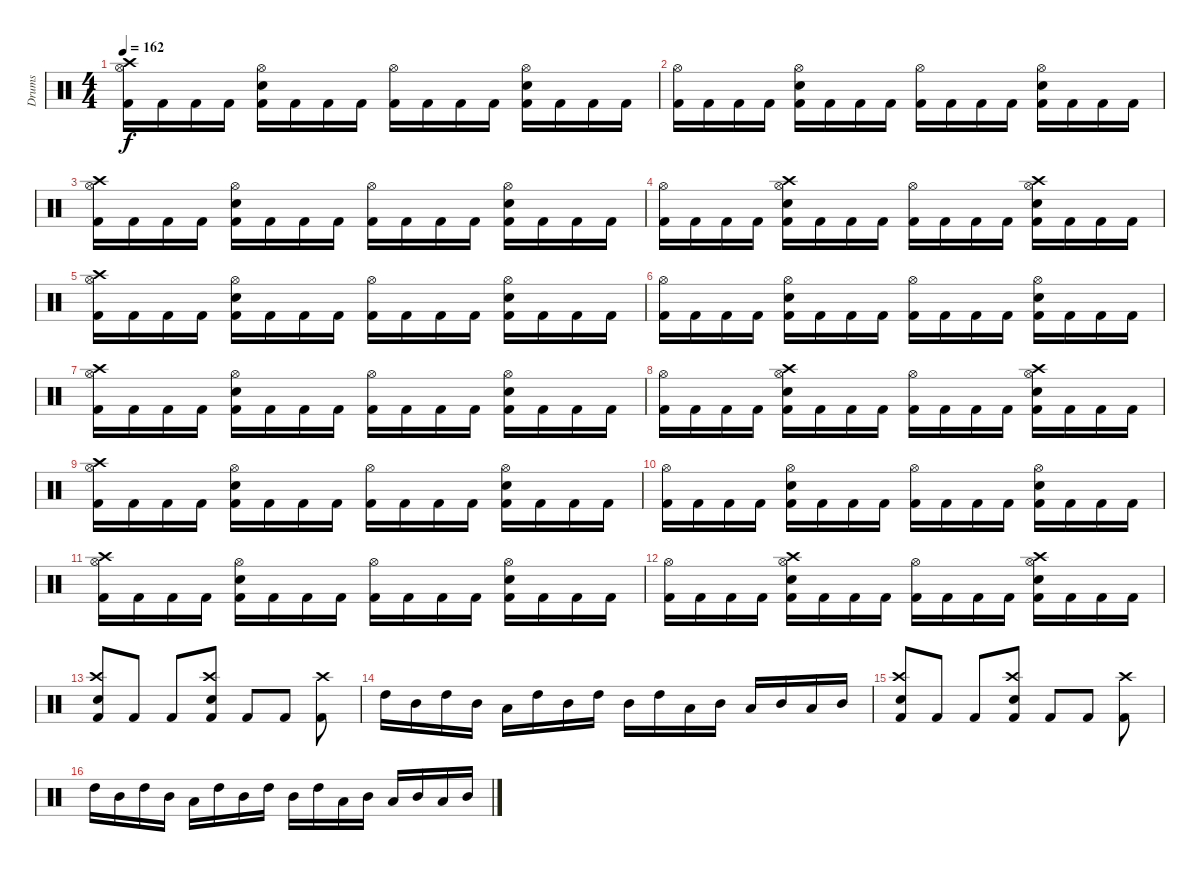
\track ("Drums" "Drums") {instrument percussion}
\staff {score}
\articulation defaults
\ts (4 4)
\tempo 162
\clef neutral
\ks c
("Hi-Hat (open)" "Kick (hit) 2" "Crash high (hit)").16{dy f} "Kick (hit) 2".16 "Kick (hit) 2".16 "Kick (hit) 2".16 ("Hi-Hat (open)" "Electric Snare (hit)" "Kick (hit) 2").16 "Kick (hit) 2".16 "Kick (hit) 2".16 "Kick (hit) 2".16 ("Hi-Hat (open)" "Kick (hit) 2").16 "Kick (hit) 2".16 "Kick (hit) 2".16 "Kick (hit) 2".16 ("Hi-Hat (open)" "Electric Snare (hit)" "Kick (hit) 2").16 "Kick (hit) 2".16 "Kick (hit) 2".16 "Kick (hit) 2".16 |
("Hi-Hat (open)" "Kick (hit) 2").16 "Kick (hit) 2".16 "Kick (hit) 2".16 "Kick (hit) 2".16 ("Hi-Hat (open)" "Electric Snare (hit)" "Kick (hit) 2").16 "Kick (hit) 2".16 "Kick (hit) 2".16 "Kick (hit) 2".16 ("Hi-Hat (open)" "Kick (hit) 2").16 "Kick (hit) 2".16 "Kick (hit) 2".16 "Kick (hit) 2".16 ("Hi-Hat (open)" "Electric Snare (hit)" "Kick (hit) 2").16 "Kick (hit) 2".16 "Kick (hit) 2".16 "Kick (hit) 2".16 |
("Hi-Hat (open)" "Kick (hit) 2" "Crash high (hit)").16 "Kick (hit) 2".16 "Kick (hit) 2".16 "Kick (hit) 2".16 ("Hi-Hat (open)" "Electric Snare (hit)" "Kick (hit) 2").16 "Kick (hit) 2".16 "Kick (hit) 2".16 "Kick (hit) 2".16 ("Hi-Hat (open)" "Kick (hit) 2").16 "Kick (hit) 2".16 "Kick (hit) 2".16 "Kick (hit) 2".16 ("Hi-Hat (open)" "Electric Snare (hit)" "Kick (hit) 2").16 "Kick (hit) 2".16 "Kick (hit) 2".16 "Kick (hit) 2".16 |
("Hi-Hat (open)" "Kick (hit) 2").16 "Kick (hit) 2".16 "Kick (hit) 2".16 "Kick (hit) 2".16 ("Crash high (hit)" "Hi-Hat (open)" "Electric Snare (hit)" "Kick (hit) 2").16 "Kick (hit) 2".16 "Kick (hit) 2".16 "Kick (hit) 2".16 ("Hi-Hat (open)" "Kick (hit) 2").16 "Kick (hit) 2".16 "Kick (hit) 2".16 "Kick (hit) 2".16 ("Crash high (hit)" "Hi-Hat (open)" "Electric Snare (hit)" "Kick (hit) 2").16 "Kick (hit) 2".16 "Kick (hit) 2".16 "Kick (hit) 2".16 |
("Hi-Hat (open)" "Kick (hit) 2" "Crash high (hit)").16 "Kick (hit) 2".16 "Kick (hit) 2".16 "Kick (hit) 2".16 ("Hi-Hat (open)" "Electric Snare (hit)" "Kick (hit) 2").16 "Kick (hit) 2".16 "Kick (hit) 2".16 "Kick (hit) 2".16 ("Hi-Hat (open)" "Kick (hit) 2").16 "Kick (hit) 2".16 "Kick (hit) 2".16 "Kick (hit) 2".16 ("Hi-Hat (open)" "Electric Snare (hit)" "Kick (hit) 2").16 "Kick (hit) 2".16 "Kick (hit) 2".16 "Kick (hit) 2".16 |
("Hi-Hat (open)" "Kick (hit) 2").16 "Kick (hit) 2".16 "Kick (hit) 2".16 "Kick (hit) 2".16 ("Hi-Hat (open)" "Electric Snare (hit)" "Kick (hit) 2").16 "Kick (hit) 2".16 "Kick (hit) 2".16 "Kick (hit) 2".16 ("Hi-Hat (open)" "Kick (hit) 2").16 "Kick (hit) 2".16 "Kick (hit) 2".16 "Kick (hit) 2".16 ("Hi-Hat (open)" "Electric Snare (hit)" "Kick (hit) 2").16 "Kick (hit) 2".16 "Kick (hit) 2".16 "Kick (hit) 2".16 |
("Hi-Hat (open)" "Kick (hit) 2" "Crash high (hit)").16 "Kick (hit) 2".16 "Kick (hit) 2".16 "Kick (hit) 2".16 ("Hi-Hat (open)" "Electric Snare (hit)" "Kick (hit) 2").16 "Kick (hit) 2".16 "Kick (hit) 2".16 "Kick (hit) 2".16 ("Hi-Hat (open)" "Kick (hit) 2").16 "Kick (hit) 2".16 "Kick (hit) 2".16 "Kick (hit) 2".16 ("Hi-Hat (open)" "Electric Snare (hit)" "Kick (hit) 2").16 "Kick (hit) 2".16 "Kick (hit) 2".16 "Kick (hit) 2".16 |
("Hi-Hat (open)" "Kick (hit) 2").16 "Kick (hit) 2".16 "Kick (hit) 2".16 "Kick (hit) 2".16 ("Crash high (hit)" "Hi-Hat (open)" "Electric Snare (hit)" "Kick (hit) 2").16 "Kick (hit) 2".16 "Kick (hit) 2".16 "Kick (hit) 2".16 ("Hi-Hat (open)" "Kick (hit) 2").16 "Kick (hit) 2".16 "Kick (hit) 2".16 "Kick (hit) 2".16 ("Crash high (hit)" "Hi-Hat (open)" "Electric Snare (hit)" "Kick (hit) 2").16 "Kick (hit) 2".16 "Kick (hit) 2".16 "Kick (hit) 2".16 |
("Hi-Hat (open)" "Kick (hit) 2" "Crash high (hit)").16 "Kick (hit) 2".16 "Kick (hit) 2".16 "Kick (hit) 2".16 ("Hi-Hat (open)" "Electric Snare (hit)" "Kick (hit) 2").16 "Kick (hit) 2".16 "Kick (hit) 2".16 "Kick (hit) 2".16 ("Hi-Hat (open)" "Kick (hit) 2").16 "Kick (hit) 2".16 "Kick (hit) 2".16 "Kick (hit) 2".16 ("Hi-Hat (open)" "Electric Snare (hit)" "Kick (hit) 2").16 "Kick (hit) 2".16 "Kick (hit) 2".16 "Kick (hit) 2".16 |
("Hi-Hat (open)" "Kick (hit) 2").16 "Kick (hit) 2".16 "Kick (hit) 2".16 "Kick (hit) 2".16 ("Hi-Hat (open)" "Electric Snare (hit)" "Kick (hit) 2").16 "Kick (hit) 2".16 "Kick (hit) 2".16 "Kick (hit) 2".16 ("Hi-Hat (open)" "Kick (hit) 2").16 "Kick (hit) 2".16 "Kick (hit) 2".16 "Kick (hit) 2".16 ("Hi-Hat (open)" "Electric Snare (hit)" "Kick (hit) 2").16 "Kick (hit) 2".16 "Kick (hit) 2".16 "Kick (hit) 2".16 |
("Hi-Hat (open)" "Kick (hit) 2" "Crash high (hit)").16 "Kick (hit) 2".16 "Kick (hit) 2".16 "Kick (hit) 2".16 ("Hi-Hat (open)" "Electric Snare (hit)" "Kick (hit) 2").16 "Kick (hit) 2".16 "Kick (hit) 2".16 "Kick (hit) 2".16 ("Hi-Hat (open)" "Kick (hit) 2").16 "Kick (hit) 2".16 "Kick (hit) 2".16 "Kick (hit) 2".16 ("Hi-Hat (open)" "Electric Snare (hit)" "Kick (hit) 2").16 "Kick (hit) 2".16 "Kick (hit) 2".16 "Kick (hit) 2".16 |
("Hi-Hat (open)" "Kick (hit) 2").16 "Kick (hit) 2".16 "Kick (hit) 2".16 "Kick (hit) 2".16 ("Crash high (hit)" "Hi-Hat (open)" "Electric Snare (hit)" "Kick (hit) 2").16 "Kick (hit) 2".16 "Kick (hit) 2".16 "Kick (hit) 2".16 ("Hi-Hat (open)" "Kick (hit) 2").16 "Kick (hit) 2".16 "Kick (hit) 2".16 "Kick (hit) 2".16 ("Crash high (hit)" "Hi-Hat (open)" "Electric Snare (hit)" "Kick (hit) 2").16 "Kick (hit) 2".16 "Kick (hit) 2".16 "Kick (hit) 2".16 |
("Kick (hit) 2" "Electric Snare (hit)" "Crash high (hit)").8 "Kick (hit) 2".8 "Kick (hit) 2".8 ("Kick (hit) 2" "Electric Snare (hit)" "Crash high (hit)").8 "Kick (hit) 2".8 "Kick (hit) 2".8 ("Kick (hit) 2" "Crash high (hit)").8 |
"High Tom (hit)".16 "Mid Tom (hit)".16 "High Tom (hit)".16 "Mid Tom (hit)".16 "Low Tom (hit)".16 "High Tom (hit)".16 "Mid Tom (hit)".16 "High Tom (hit)".16 "Mid Tom (hit)".16 "High Tom (hit)".16 "Low Tom (hit)".16 "Mid Tom (hit)".16 "Low Tom (hit)".16 "Mid Tom (hit)".16 "Low Tom (hit)".16 "Mid Tom (hit)".16 |
("Kick (hit) 2" "Electric Snare (hit)" "Crash high (hit)").8 "Kick (hit) 2".8 "Kick (hit) 2".8 ("Kick (hit) 2" "Electric Snare (hit)" "Crash high (hit)").8 "Kick (hit) 2".8 "Kick (hit) 2".8 ("Kick (hit) 2" "Crash high (hit)").8 |
"High Tom (hit)".16 "Mid Tom (hit)".16 "High Tom (hit)".16 "Mid Tom (hit)".16 "Low Tom (hit)".16 "High Tom (hit)".16 "Mid Tom (hit)".16 "High Tom (hit)".16 "Mid Tom (hit)".16 "High Tom (hit)".16 "Low Tom (hit)".16 "Mid Tom (hit)".16 "Low Tom (hit)".16 "Mid Tom (hit)".16 "Low Tom (hit)".16 "Mid Tom (hit)".16
